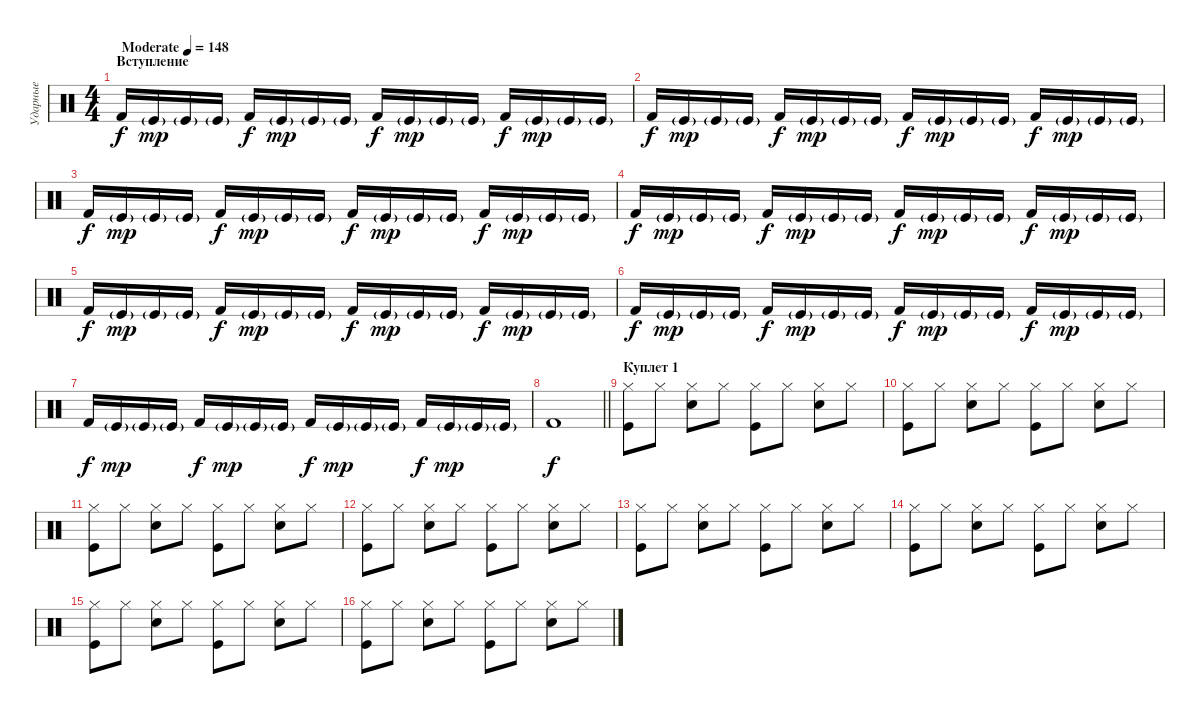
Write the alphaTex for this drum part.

\track ("Ударные" "Ударные") {instrument percussion}
\staff {score}
\articulation defaults
\ts (4 4)
\section ("" "Вступление")
\tempo (148 "Moderate")
\clef neutral
\ks c "Kick (hit) 2".16{dy f} "Kick (hit)"{g}.16{dy mp} "Kick (hit)"{g}.16 "Kick (hit)"{g}.16 "Kick (hit) 2".16{dy f} "Kick (hit)"{g}.16{dy mp} "Kick (hit)"{g}.16 "Kick (hit)"{g}.16 "Kick (hit) 2".16{dy f} "Kick (hit)"{g}.16{dy mp} "Kick (hit)"{g}.16 "Kick (hit)"{g}.16 "Kick (hit) 2".16{dy f} "Kick (hit)"{g}.16{dy mp} "Kick (hit)"{g}.16 "Kick (hit)"{g}.16
|
"Kick (hit) 2".16{dy f} "Kick (hit)"{g}.16{dy mp} "Kick (hit)"{g}.16 "Kick (hit)"{g}.16 "Kick (hit) 2".16{dy f} "Kick (hit)"{g}.16{dy mp} "Kick (hit)"{g}.16 "Kick (hit)"{g}.16 "Kick (hit) 2".16{dy f} "Kick (hit)"{g}.16{dy mp} "Kick (hit)"{g}.16 "Kick (hit)"{g}.16 "Kick (hit) 2".16{dy f} "Kick (hit)"{g}.16{dy mp} "Kick (hit)"{g}.16 "Kick (hit)"{g}.16 |
"Kick (hit) 2".16{dy f} "Kick (hit)"{g}.16{dy mp} "Kick (hit)"{g}.16 "Kick (hit)"{g}.16 "Kick (hit) 2".16{dy f} "Kick (hit)"{g}.16{dy mp} "Kick (hit)"{g}.16 "Kick (hit)"{g}.16 "Kick (hit) 2".16{dy f} "Kick (hit)"{g}.16{dy mp} "Kick (hit)"{g}.16 "Kick (hit)"{g}.16 "Kick (hit) 2".16{dy f} "Kick (hit)"{g}.16{dy mp} "Kick (hit)"{g}.16 "Kick (hit)"{g}.16 |
"Kick (hit) 2".16{dy f} "Kick (hit)"{g}.16{dy mp} "Kick (hit)"{g}.16 "Kick (hit)"{g}.16 "Kick (hit) 2".16{dy f} "Kick (hit)"{g}.16{dy mp} "Kick (hit)"{g}.16 "Kick (hit)"{g}.16 "Kick (hit) 2".16{dy f} "Kick (hit)"{g}.16{dy mp} "Kick (hit)"{g}.16 "Kick (hit)"{g}.16 "Kick (hit) 2".16{dy f} "Kick (hit)"{g}.16{dy mp} "Kick (hit)"{g}.16 "Kick (hit)"{g}.16 |
"Kick (hit) 2".16{dy f} "Kick (hit)"{g}.16{dy mp} "Kick (hit)"{g}.16 "Kick (hit)"{g}.16 "Kick (hit) 2".16{dy f} "Kick (hit)"{g}.16{dy mp} "Kick (hit)"{g}.16 "Kick (hit)"{g}.16 "Kick (hit) 2".16{dy f} "Kick (hit)"{g}.16{dy mp} "Kick (hit)"{g}.16 "Kick (hit)"{g}.16 "Kick (hit) 2".16{dy f} "Kick (hit)"{g}.16{dy mp} "Kick (hit)"{g}.16 "Kick (hit)"{g}.16 |
"Kick (hit) 2".16{dy f} "Kick (hit)"{g}.16{dy mp} "Kick (hit)"{g}.16 "Kick (hit)"{g}.16 "Kick (hit) 2".16{dy f} "Kick (hit)"{g}.16{dy mp} "Kick (hit)"{g}.16 "Kick (hit)"{g}.16 "Kick (hit) 2".16{dy f} "Kick (hit)"{g}.16{dy mp} "Kick (hit)"{g}.16 "Kick (hit)"{g}.16 "Kick (hit) 2".16{dy f} "Kick (hit)"{g}.16{dy mp} "Kick (hit)"{g}.16 "Kick (hit)"{g}.16 |
"Kick (hit) 2".16{dy f} "Kick (hit)"{g}.16{dy mp} "Kick (hit)"{g}.16 "Kick (hit)"{g}.16 "Kick (hit) 2".16{dy f} "Kick (hit)"{g}.16{dy mp} "Kick (hit)"{g}.16 "Kick (hit)"{g}.16 "Kick (hit) 2".16{dy f} "Kick (hit)"{g}.16{dy mp} "Kick (hit)"{g}.16 "Kick (hit)"{g}.16 "Kick (hit) 2".16{dy f} "Kick (hit)"{g}.16{dy mp} "Kick (hit)"{g}.16 "Kick (hit)"{g}.16 |
\barLineRight lightlight "Kick (hit) 2".1{dy f}
|
\section ("" "Куплет 1")
("Hi-Hat (closed)" "Kick (hit)").8 "Hi-Hat (closed)".8 ("Hi-Hat (closed)" "Snare (hit) 2").8 "Hi-Hat (closed)".8 ("Hi-Hat (closed)" "Kick (hit)").8 "Hi-Hat (closed)".8 ("Hi-Hat (closed)" "Snare (hit) 2").8 "Hi-Hat (closed)".8 |
("Hi-Hat (closed)" "Kick (hit)").8 "Hi-Hat (closed)".8 ("Hi-Hat (closed)" "Snare (hit) 2").8 "Hi-Hat (closed)".8 ("Hi-Hat (closed)" "Kick (hit)").8 "Hi-Hat (closed)".8 ("Hi-Hat (closed)" "Snare (hit) 2").8 "Hi-Hat (closed)".8 |
("Hi-Hat (closed)" "Kick (hit)").8 "Hi-Hat (closed)".8 ("Hi-Hat (closed)" "Snare (hit) 2").8 "Hi-Hat (closed)".8 ("Hi-Hat (closed)" "Kick (hit)").8 "Hi-Hat (closed)".8 ("Hi-Hat (closed)" "Snare (hit) 2").8 "Hi-Hat (closed)".8 |
("Hi-Hat (closed)" "Kick (hit)").8 "Hi-Hat (closed)".8 ("Hi-Hat (closed)" "Snare (hit) 2").8 "Hi-Hat (closed)".8 ("Hi-Hat (closed)" "Kick (hit)").8 "Hi-Hat (closed)".8 ("Hi-Hat (closed)" "Snare (hit) 2").8 "Hi-Hat (closed)".8 |
("Hi-Hat (closed)" "Kick (hit)").8 "Hi-Hat (closed)".8 ("Hi-Hat (closed)" "Snare (hit) 2").8 "Hi-Hat (closed)".8 ("Hi-Hat (closed)" "Kick (hit)").8 "Hi-Hat (closed)".8 ("Hi-Hat (closed)" "Snare (hit) 2").8 "Hi-Hat (closed)".8 |
("Hi-Hat (closed)" "Kick (hit)").8 "Hi-Hat (closed)".8 ("Hi-Hat (closed)" "Snare (hit) 2").8 "Hi-Hat (closed)".8 ("Hi-Hat (closed)" "Kick (hit)").8 "Hi-Hat (closed)".8 ("Hi-Hat (closed)" "Snare (hit) 2").8 "Hi-Hat (closed)".8 |
("Hi-Hat (closed)" "Kick (hit)").8 "Hi-Hat (closed)".8 ("Hi-Hat (closed)" "Snare (hit) 2").8 "Hi-Hat (closed)".8 ("Hi-Hat (closed)" "Kick (hit)").8 "Hi-Hat (closed)".8 ("Hi-Hat (closed)" "Snare (hit) 2").8 "Hi-Hat (closed)".8 |
("Hi-Hat (closed)" "Kick (hit)").8 "Hi-Hat (closed)".8 ("Hi-Hat (closed)" "Snare (hit) 2").8 "Hi-Hat (closed)".8 ("Hi-Hat (closed)" "Kick (hit)").8 "Hi-Hat (closed)".8 ("Hi-Hat (closed)" "Snare (hit) 2").8 "Hi-Hat (closed)".8
